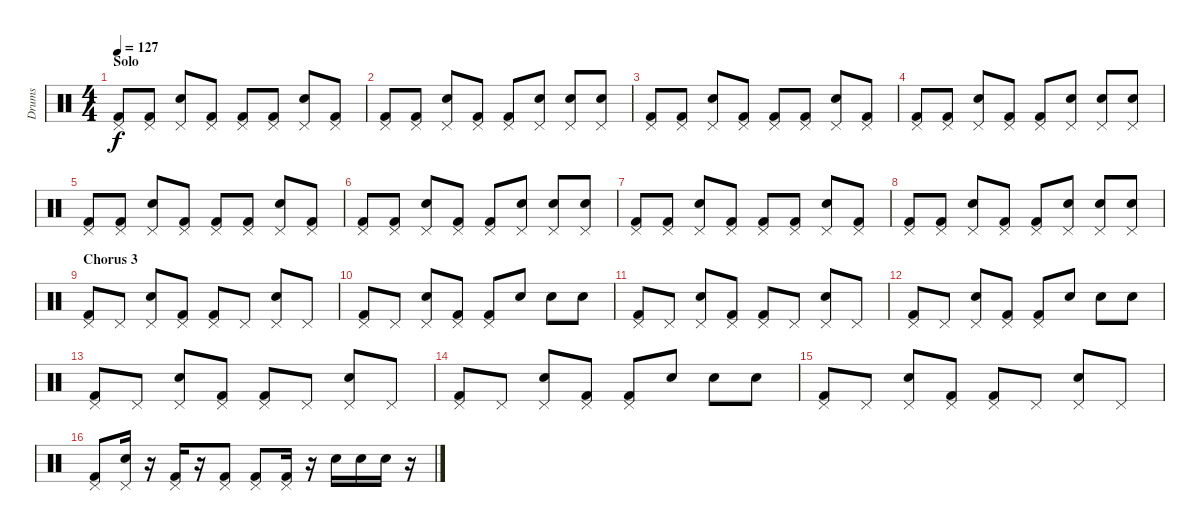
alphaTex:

\track ("Drums" "Drums") {instrument percussion}
\staff {score}
\articulation defaults
\ts (4 4)
\section ("" "Solo")
\tempo 127
\clef neutral
\ks c
("Pedal Hi-Hat (hit)" "Kick (hit) 2").8{dy f} ("Pedal Hi-Hat (hit)" "Kick (hit) 2").8 ("Pedal Hi-Hat (hit)" "Snare (hit) 2").8 ("Pedal Hi-Hat (hit)" "Kick (hit) 2").8 ("Pedal Hi-Hat (hit)" "Kick (hit) 2").8 ("Pedal Hi-Hat (hit)" "Kick (hit) 2").8 ("Pedal Hi-Hat (hit)" "Snare (hit) 2").8 ("Pedal Hi-Hat (hit)" "Kick (hit) 2").8 |
("Pedal Hi-Hat (hit)" "Kick (hit) 2").8 ("Pedal Hi-Hat (hit)" "Kick (hit) 2").8 ("Pedal Hi-Hat (hit)" "Snare (hit) 2").8 ("Pedal Hi-Hat (hit)" "Kick (hit) 2").8 ("Pedal Hi-Hat (hit)" "Kick (hit) 2").8 ("Pedal Hi-Hat (hit)" "Snare (hit) 2").8 ("Pedal Hi-Hat (hit)" "Snare (hit) 2").8 ("Pedal Hi-Hat (hit)" "Snare (hit) 2").8 |
("Pedal Hi-Hat (hit)" "Kick (hit) 2").8 ("Pedal Hi-Hat (hit)" "Kick (hit) 2").8 ("Pedal Hi-Hat (hit)" "Snare (hit) 2").8 ("Pedal Hi-Hat (hit)" "Kick (hit) 2").8 ("Pedal Hi-Hat (hit)" "Kick (hit) 2").8 ("Pedal Hi-Hat (hit)" "Kick (hit) 2").8 ("Pedal Hi-Hat (hit)" "Snare (hit) 2").8 ("Pedal Hi-Hat (hit)" "Kick (hit) 2").8 |
("Pedal Hi-Hat (hit)" "Kick (hit) 2").8 ("Pedal Hi-Hat (hit)" "Kick (hit) 2").8 ("Pedal Hi-Hat (hit)" "Snare (hit) 2").8 ("Pedal Hi-Hat (hit)" "Kick (hit) 2").8 ("Pedal Hi-Hat (hit)" "Kick (hit) 2").8 ("Pedal Hi-Hat (hit)" "Snare (hit) 2").8 ("Pedal Hi-Hat (hit)" "Snare (hit) 2").8 ("Pedal Hi-Hat (hit)" "Snare (hit) 2").8 |
("Pedal Hi-Hat (hit)" "Kick (hit) 2").8 ("Pedal Hi-Hat (hit)" "Kick (hit) 2").8 ("Pedal Hi-Hat (hit)" "Snare (hit) 2").8 ("Pedal Hi-Hat (hit)" "Kick (hit) 2").8 ("Pedal Hi-Hat (hit)" "Kick (hit) 2").8 ("Pedal Hi-Hat (hit)" "Kick (hit) 2").8 ("Pedal Hi-Hat (hit)" "Snare (hit) 2").8 ("Pedal Hi-Hat (hit)" "Kick (hit) 2").8 |
("Pedal Hi-Hat (hit)" "Kick (hit) 2").8 ("Pedal Hi-Hat (hit)" "Kick (hit) 2").8 ("Pedal Hi-Hat (hit)" "Snare (hit) 2").8 ("Pedal Hi-Hat (hit)" "Kick (hit) 2").8 ("Pedal Hi-Hat (hit)" "Kick (hit) 2").8 ("Pedal Hi-Hat (hit)" "Snare (hit) 2").8 ("Pedal Hi-Hat (hit)" "Snare (hit) 2").8 ("Pedal Hi-Hat (hit)" "Snare (hit) 2").8 |
("Pedal Hi-Hat (hit)" "Kick (hit) 2").8 ("Pedal Hi-Hat (hit)" "Kick (hit) 2").8 ("Pedal Hi-Hat (hit)" "Snare (hit) 2").8 ("Pedal Hi-Hat (hit)" "Kick (hit) 2").8 ("Pedal Hi-Hat (hit)" "Kick (hit) 2").8 ("Pedal Hi-Hat (hit)" "Kick (hit) 2").8 ("Pedal Hi-Hat (hit)" "Snare (hit) 2").8 ("Pedal Hi-Hat (hit)" "Kick (hit) 2").8 |
("Pedal Hi-Hat (hit)" "Kick (hit) 2").8 ("Pedal Hi-Hat (hit)" "Kick (hit) 2").8 ("Pedal Hi-Hat (hit)" "Snare (hit) 2").8 ("Pedal Hi-Hat (hit)" "Kick (hit) 2").8 ("Pedal Hi-Hat (hit)" "Kick (hit) 2").8 ("Pedal Hi-Hat (hit)" "Snare (hit) 2").8 ("Pedal Hi-Hat (hit)" "Snare (hit) 2").8 ("Pedal Hi-Hat (hit)" "Snare (hit) 2").8 |
\section ("" "Chorus 3")
("Pedal Hi-Hat (hit)" "Kick (hit) 2").8 "Pedal Hi-Hat (hit)".8 ("Pedal Hi-Hat (hit)" "Snare (hit) 2").8 ("Pedal Hi-Hat (hit)" "Kick (hit) 2").8 ("Pedal Hi-Hat (hit)" "Kick (hit) 2").8 "Pedal Hi-Hat (hit)".8 ("Pedal Hi-Hat (hit)" "Snare (hit) 2").8 "Pedal Hi-Hat (hit)".8 |
("Pedal Hi-Hat (hit)" "Kick (hit) 2").8 "Pedal Hi-Hat (hit)".8 ("Pedal Hi-Hat (hit)" "Snare (hit) 2").8 ("Pedal Hi-Hat (hit)" "Kick (hit) 2").8 ("Pedal Hi-Hat (hit)" "Kick (hit) 2").8 "Snare (hit) 2".8 "Snare (hit) 2".8 "Snare (hit) 2".8 |
("Pedal Hi-Hat (hit)" "Kick (hit) 2").8 "Pedal Hi-Hat (hit)".8 ("Pedal Hi-Hat (hit)" "Snare (hit) 2").8 ("Pedal Hi-Hat (hit)" "Kick (hit) 2").8 ("Pedal Hi-Hat (hit)" "Kick (hit) 2").8 "Pedal Hi-Hat (hit)".8 ("Pedal Hi-Hat (hit)" "Snare (hit) 2").8 "Pedal Hi-Hat (hit)".8 |
("Pedal Hi-Hat (hit)" "Kick (hit) 2").8 "Pedal Hi-Hat (hit)".8 ("Pedal Hi-Hat (hit)" "Snare (hit) 2").8 ("Pedal Hi-Hat (hit)" "Kick (hit) 2").8 ("Pedal Hi-Hat (hit)" "Kick (hit) 2").8 "Snare (hit) 2".8 "Snare (hit) 2".8 "Snare (hit) 2".8 |
("Pedal Hi-Hat (hit)" "Kick (hit) 2").8 "Pedal Hi-Hat (hit)".8 ("Pedal Hi-Hat (hit)" "Snare (hit) 2").8 ("Pedal Hi-Hat (hit)" "Kick (hit) 2").8 ("Pedal Hi-Hat (hit)" "Kick (hit) 2").8 "Pedal Hi-Hat (hit)".8 ("Pedal Hi-Hat (hit)" "Snare (hit) 2").8 "Pedal Hi-Hat (hit)".8 |
("Pedal Hi-Hat (hit)" "Kick (hit) 2").8 "Pedal Hi-Hat (hit)".8 ("Pedal Hi-Hat (hit)" "Snare (hit) 2").8 ("Pedal Hi-Hat (hit)" "Kick (hit) 2").8 ("Pedal Hi-Hat (hit)" "Kick (hit) 2").8 "Snare (hit) 2".8 "Snare (hit) 2".8 "Snare (hit) 2".8 |
("Pedal Hi-Hat (hit)" "Kick (hit) 2").8 "Pedal Hi-Hat (hit)".8 ("Pedal Hi-Hat (hit)" "Snare (hit) 2").8 ("Pedal Hi-Hat (hit)" "Kick (hit) 2").8 ("Pedal Hi-Hat (hit)" "Kick (hit) 2").8 "Pedal Hi-Hat (hit)".8 ("Pedal Hi-Hat (hit)" "Snare (hit) 2").8 "Pedal Hi-Hat (hit)".8 |
("Pedal Hi-Hat (hit)" "Kick (hit) 2").8 ("Pedal Hi-Hat (hit)" "Snare (hit) 2").16 r.16 ("Pedal Hi-Hat (hit)" "Kick (hit) 2").16 r.16 ("Pedal Hi-Hat (hit)" "Kick (hit) 2").8 ("Pedal Hi-Hat (hit)" "Kick (hit) 2").8 ("Pedal Hi-Hat (hit)" "Kick (hit) 2").16 r.16 "Snare (hit) 2".16 "Snare (hit) 2".16 "Snare (hit) 2".16 r.16
